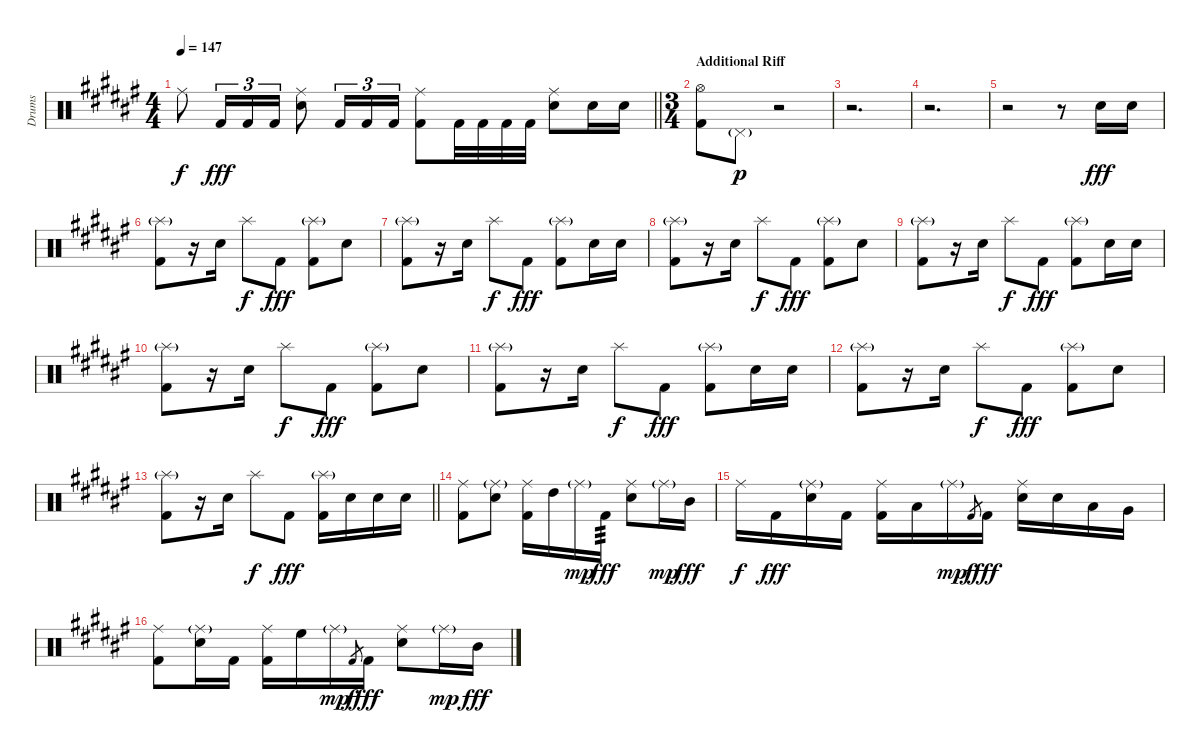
\track ("Drums" "Drums") {instrument percussion}
\staff {score}
\articulation defaults
\ts (4 4)
\tempo 147
\clef neutral
\barLineRight lightlight
\ks d#minor "Ride (middle)".8{dy f} "Kick (hit) 2".16{tu (3 2) dy fff} "Kick (hit) 2".16{tu (3 2)} "Kick (hit) 2".16{tu (3 2)}
("Ride (middle)" "Snare (hit) 2").8 "Kick (hit) 2".16{tu (3 2)} "Kick (hit) 2".16{tu (3 2)} "Kick (hit) 2".16{tu (3 2)} ("Ride (middle)" "Kick (hit) 2").8 "Kick (hit) 2".32 "Kick (hit) 2".32 "Kick (hit) 2".32 "Kick (hit) 2".32 ("Ride (middle)" "Snare (hit) 2").8 "Snare (hit) 2".16 "Snare (hit) 2".16 |
\ts (3 4)
\section ("" "Additional Riff")
("Hi-Hat (open)" "Kick (hit) 2").8 "Pedal Hi-Hat (hit)"{g}.8{dy p} r.2 |
r.2{d} |
r.2{d} |
r.2 r.8 "Snare (hit) 2".16{dy fff} "Snare (hit) 2".16 |
("Splash (hit)"{g} "Kick (hit) 2").8 r.16 "Snare (hit) 2".16 "Splash (hit)".8{dy f} "Kick (hit) 2".8{dy fff} ("Splash (hit)"{g} "Kick (hit) 2").8 "Snare (hit) 2".8 |
("Splash (hit)"{g} "Kick (hit) 2").8 r.16 "Snare (hit) 2".16 "Splash (hit)".8{dy f} "Kick (hit) 2".8{dy fff} ("Splash (hit)"{g} "Kick (hit) 2").8 "Snare (hit) 2".16 "Snare (hit) 2".16 |
("Splash (hit)"{g} "Kick (hit) 2").8 r.16 "Snare (hit) 2".16 "Splash (hit)".8{dy f} "Kick (hit) 2".8{dy fff} ("Splash (hit)"{g} "Kick (hit) 2").8 "Snare (hit) 2".8 |
("Splash (hit)"{g} "Kick (hit) 2").8 r.16 "Snare (hit) 2".16 "Splash (hit)".8{dy f} "Kick (hit) 2".8{dy fff} ("Splash (hit)"{g} "Kick (hit) 2").8 "Snare (hit) 2".16 "Snare (hit) 2".16 |
("Splash (hit)"{g} "Kick (hit) 2").8 r.16 "Snare (hit) 2".16 "Splash (hit)".8{dy f} "Kick (hit) 2".8{dy fff} ("Splash (hit)"{g} "Kick (hit) 2").8 "Snare (hit) 2".8 |
("Splash (hit)"{g} "Kick (hit) 2").8 r.16 "Snare (hit) 2".16 "Splash (hit)".8{dy f} "Kick (hit) 2".8{dy fff} ("Splash (hit)"{g} "Kick (hit) 2").8 "Snare (hit) 2".16 "Snare (hit) 2".16 |
("Splash (hit)"{g} "Kick (hit) 2").8 r.16 "Snare (hit) 2".16 "Splash (hit)".8{dy f} "Kick (hit) 2".8{dy fff} ("Splash (hit)"{g} "Kick (hit) 2").8 "Snare (hit) 2".8 |
\barLineRight lightlight
("Splash (hit)"{g} "Kick (hit) 2").8 r.16 "Snare (hit) 2".16 "Splash (hit)".8{dy f} "Kick (hit) 2".8{dy fff} ("Splash (hit)"{g} "Kick (hit) 2").16 "Snare (hit) 2".16 "Snare (hit) 2".16 "Snare (hit) 2".16 |
\section ("" "")
("Ride (middle)" "Kick (hit) 2").8 ("Ride (middle)"{g} "Snare (hit) 2").8 ("Ride (middle)" "Kick (hit) 2").16 "High Tom (hit)".16 "Ride (middle)"{g}.16{dy mp} "Kick (hit) 2".16{tp 3 dy fff} ("Ride (middle)" "Snare (hit) 2").8 "Ride (middle)"{g}.16{dy mp} "Mid Tom (hit)".16{dy fff} |
"Ride (middle)".16{dy f} "Kick (hit) 2".16{dy fff} ("Ride (middle)"{g} "Snare (hit) 2").16 "Kick (hit) 2".16 ("Ride (middle)" "Kick (hit) 2").16 "Low Tom (hit)".16 "Ride (middle)"{g}.16{dy mp} "Kick (hit) 2".8{gr dy f} "Kick (hit) 2".16{dy fff} ("Ride (middle)" "Snare (hit) 2").16 "Snare (hit) 2".16 "Low Tom (hit)".16 "Very Low Tom (hit)".16 |
("Ride (middle)" "Kick (hit) 2").8 ("Ride (middle)"{g} "Snare (hit) 2").16 "Kick (hit) 2".16 ("Ride (middle)" "Kick (hit) 2").16 "High Floor Tom (hit)".16 "Ride (middle)"{g}.16{dy mp} "Kick (hit) 2".8{gr dy f} "Kick (hit) 2".16{dy fff} ("Ride (middle)" "Snare (hit) 2").8 "Ride (middle)"{g}.16{dy mp} "Mid Tom (hit)".16{dy fff}
